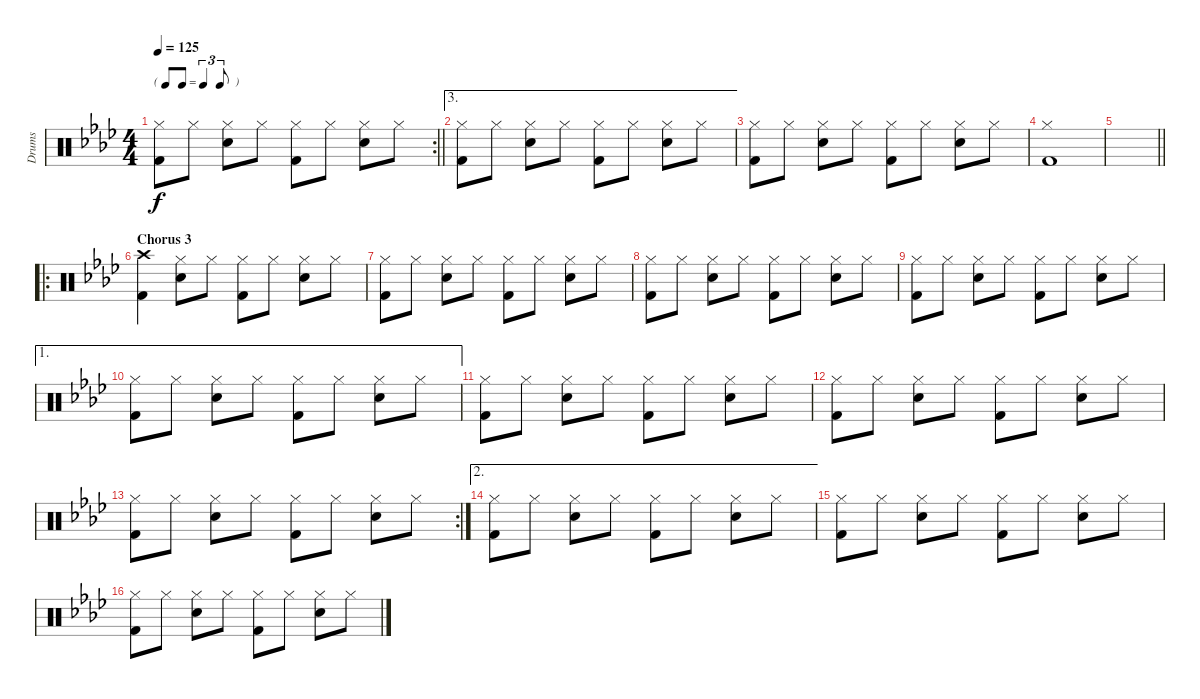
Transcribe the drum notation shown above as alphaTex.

\track ("Drums" "Drums") {instrument percussion}
\staff {score}
\articulation defaults
\rc 2
\ts (4 4)
\tf triplet8th
\tempo 125
\clef neutral
\barLineRight lightlight
\ks ab
("Hi-Hat (closed)" "Kick (hit) 2").8{dy f} "Hi-Hat (closed)".8 ("Hi-Hat (closed)" "Electric Snare (hit)").8 "Hi-Hat (closed)".8 ("Hi-Hat (closed)" "Kick (hit) 2").8 "Hi-Hat (closed)".8 ("Hi-Hat (closed)" "Electric Snare (hit)").8 "Hi-Hat (closed)".8 |
\ae 3
("Hi-Hat (closed)" "Kick (hit) 2").8 "Hi-Hat (closed)".8 ("Hi-Hat (closed)" "Electric Snare (hit)").8 "Hi-Hat (closed)".8 ("Hi-Hat (closed)" "Kick (hit) 2").8 "Hi-Hat (closed)".8 ("Hi-Hat (closed)" "Electric Snare (hit)").8 "Hi-Hat (closed)".8 |
("Hi-Hat (closed)" "Kick (hit) 2").8 "Hi-Hat (closed)".8 ("Hi-Hat (closed)" "Electric Snare (hit)").8 "Hi-Hat (closed)".8 ("Hi-Hat (closed)" "Kick (hit) 2").8 "Hi-Hat (closed)".8 ("Hi-Hat (closed)" "Electric Snare (hit)").8 "Hi-Hat (closed)".8 |
("Hi-Hat (closed)" "Kick (hit) 2").1 |
\barLineRight lightlight
|
\ro
\section ("" "Chorus 3")
("Crash high (hit)" "Kick (hit) 2").4 ("Hi-Hat (closed)" "Electric Snare (hit)").8 "Hi-Hat (closed)".8 ("Hi-Hat (closed)" "Kick (hit) 2").8 "Hi-Hat (closed)".8 ("Hi-Hat (closed)" "Electric Snare (hit)").8 "Hi-Hat (closed)".8 |
("Hi-Hat (closed)" "Kick (hit) 2").8 "Hi-Hat (closed)".8 ("Hi-Hat (closed)" "Electric Snare (hit)").8 "Hi-Hat (closed)".8 ("Hi-Hat (closed)" "Kick (hit) 2").8 "Hi-Hat (closed)".8 ("Hi-Hat (closed)" "Electric Snare (hit)").8 "Hi-Hat (closed)".8 |
("Hi-Hat (closed)" "Kick (hit) 2").8 "Hi-Hat (closed)".8 ("Hi-Hat (closed)" "Electric Snare (hit)").8 "Hi-Hat (closed)".8 ("Hi-Hat (closed)" "Kick (hit) 2").8 "Hi-Hat (closed)".8 ("Hi-Hat (closed)" "Electric Snare (hit)").8 "Hi-Hat (closed)".8 |
("Hi-Hat (closed)" "Kick (hit) 2").8 "Hi-Hat (closed)".8 ("Hi-Hat (closed)" "Electric Snare (hit)").8 "Hi-Hat (closed)".8 ("Hi-Hat (closed)" "Kick (hit) 2").8 "Hi-Hat (closed)".8 ("Hi-Hat (closed)" "Electric Snare (hit)").8 "Hi-Hat (closed)".8 |
\ae 1
("Hi-Hat (closed)" "Kick (hit) 2").8 "Hi-Hat (closed)".8 ("Hi-Hat (closed)" "Electric Snare (hit)").8 "Hi-Hat (closed)".8 ("Hi-Hat (closed)" "Kick (hit) 2").8 "Hi-Hat (closed)".8 ("Hi-Hat (closed)" "Electric Snare (hit)").8 "Hi-Hat (closed)".8 |
("Hi-Hat (closed)" "Kick (hit) 2").8 "Hi-Hat (closed)".8 ("Hi-Hat (closed)" "Electric Snare (hit)").8 "Hi-Hat (closed)".8 ("Hi-Hat (closed)" "Kick (hit) 2").8 "Hi-Hat (closed)".8 ("Hi-Hat (closed)" "Electric Snare (hit)").8 "Hi-Hat (closed)".8 |
("Hi-Hat (closed)" "Kick (hit) 2").8 "Hi-Hat (closed)".8 ("Hi-Hat (closed)" "Electric Snare (hit)").8 "Hi-Hat (closed)".8 ("Hi-Hat (closed)" "Kick (hit) 2").8 "Hi-Hat (closed)".8 ("Hi-Hat (closed)" "Electric Snare (hit)").8 "Hi-Hat (closed)".8 |
\rc 2
("Hi-Hat (closed)" "Kick (hit) 2").8 "Hi-Hat (closed)".8 ("Hi-Hat (closed)" "Electric Snare (hit)").8 "Hi-Hat (closed)".8 ("Hi-Hat (closed)" "Kick (hit) 2").8 "Hi-Hat (closed)".8 ("Hi-Hat (closed)" "Electric Snare (hit)").8 "Hi-Hat (closed)".8 |
\ae 2
("Hi-Hat (closed)" "Kick (hit) 2").8 "Hi-Hat (closed)".8 ("Hi-Hat (closed)" "Electric Snare (hit)").8 "Hi-Hat (closed)".8 ("Hi-Hat (closed)" "Kick (hit) 2").8 "Hi-Hat (closed)".8 ("Hi-Hat (closed)" "Electric Snare (hit)").8 "Hi-Hat (closed)".8 |
("Hi-Hat (closed)" "Kick (hit) 2").8 "Hi-Hat (closed)".8 ("Hi-Hat (closed)" "Electric Snare (hit)").8 "Hi-Hat (closed)".8 ("Hi-Hat (closed)" "Kick (hit) 2").8 "Hi-Hat (closed)".8 ("Hi-Hat (closed)" "Electric Snare (hit)").8 "Hi-Hat (closed)".8 |
("Hi-Hat (closed)" "Kick (hit) 2").8 "Hi-Hat (closed)".8 ("Hi-Hat (closed)" "Electric Snare (hit)").8 "Hi-Hat (closed)".8 ("Hi-Hat (closed)" "Kick (hit) 2").8 "Hi-Hat (closed)".8 ("Hi-Hat (closed)" "Electric Snare (hit)").8 "Hi-Hat (closed)".8
